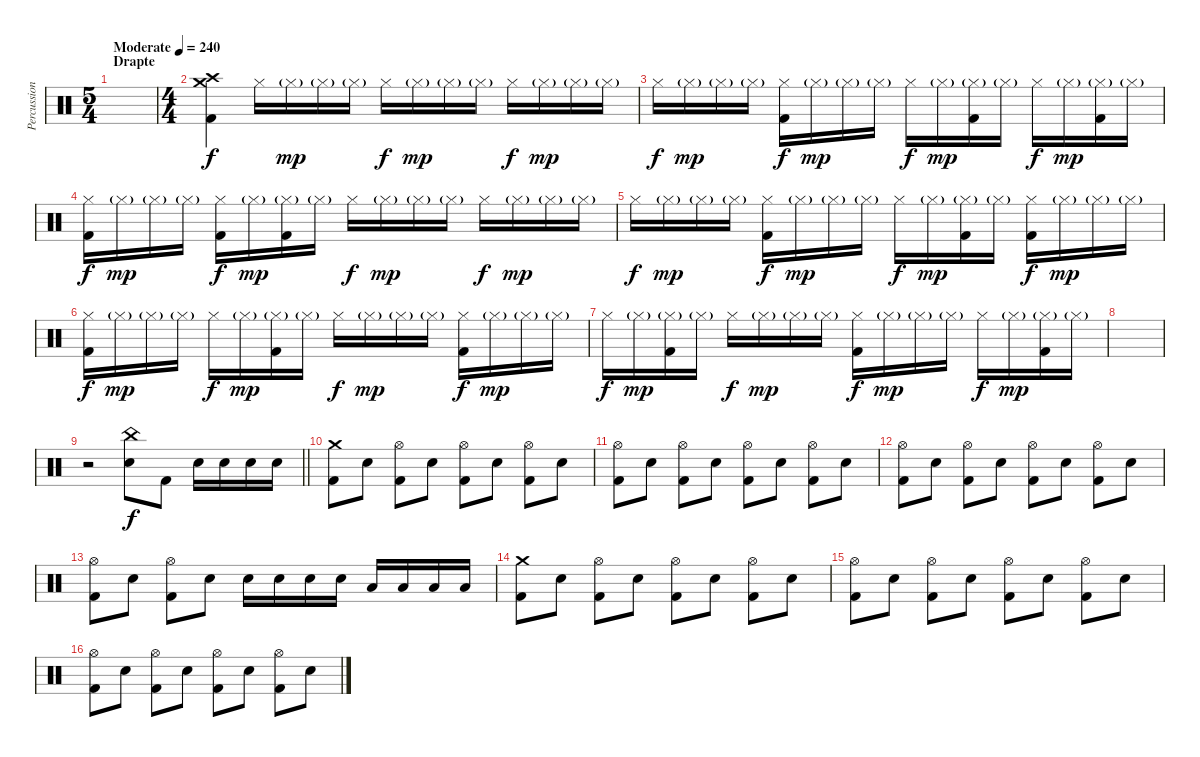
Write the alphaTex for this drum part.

\track ("Percussion" "Percussion") {instrument percussion}
\staff {score}
\articulation defaults
\ts (5 4)
\section ("" "Drapte")
\tempo (240 "Moderate")
\clef neutral
\ks c
|
\ts (4 4)
("Crash medium (hit)" "Crash high (hit)" "Kick (hit) 2").4 "Hi-Hat (closed)".16 "Hi-Hat (closed)"{g}.16{dy mp} "Hi-Hat (closed)"{g}.16 "Hi-Hat (closed)"{g}.16 "Hi-Hat (closed)".16{dy f} "Hi-Hat (closed)"{g}.16{dy mp} "Hi-Hat (closed)"{g}.16 "Hi-Hat (closed)"{g}.16 "Hi-Hat (closed)".16{dy f} "Hi-Hat (closed)"{g}.16{dy mp} "Hi-Hat (closed)"{g}.16 "Hi-Hat (closed)"{g}.16 |
"Hi-Hat (closed)".16{dy f} "Hi-Hat (closed)"{g}.16{dy mp} "Hi-Hat (closed)"{g}.16 "Hi-Hat (closed)"{g}.16 ("Hi-Hat (closed)" "Kick (hit) 2").16{dy f} "Hi-Hat (closed)"{g}.16{dy mp} "Hi-Hat (closed)"{g}.16 "Hi-Hat (closed)"{g}.16 "Hi-Hat (closed)".16{dy f} "Hi-Hat (closed)"{g}.16{dy mp} ("Hi-Hat (closed)"{g} "Kick (hit) 2").16 "Hi-Hat (closed)"{g}.16 "Hi-Hat (closed)".16{dy f} "Hi-Hat (closed)"{g}.16{dy mp} ("Hi-Hat (closed)"{g} "Kick (hit) 2").16 "Hi-Hat (closed)"{g}.16 |
("Hi-Hat (closed)" "Kick (hit) 2").16{dy f} "Hi-Hat (closed)"{g}.16{dy mp} "Hi-Hat (closed)"{g}.16 "Hi-Hat (closed)"{g}.16 ("Hi-Hat (closed)" "Kick (hit) 2").16{dy f} "Hi-Hat (closed)"{g}.16{dy mp} ("Hi-Hat (closed)"{g} "Kick (hit) 2").16 "Hi-Hat (closed)"{g}.16 "Hi-Hat (closed)".16{dy f} "Hi-Hat (closed)"{g}.16{dy mp} "Hi-Hat (closed)"{g}.16 "Hi-Hat (closed)"{g}.16 "Hi-Hat (closed)".16{dy f} "Hi-Hat (closed)"{g}.16{dy mp} "Hi-Hat (closed)"{g}.16 "Hi-Hat (closed)"{g}.16 |
"Hi-Hat (closed)".16{dy f} "Hi-Hat (closed)"{g}.16{dy mp} "Hi-Hat (closed)"{g}.16 "Hi-Hat (closed)"{g}.16 ("Hi-Hat (closed)" "Kick (hit) 2").16{dy f} "Hi-Hat (closed)"{g}.16{dy mp} "Hi-Hat (closed)"{g}.16 "Hi-Hat (closed)"{g}.16 "Hi-Hat (closed)".16{dy f} "Hi-Hat (closed)"{g}.16{dy mp} ("Hi-Hat (closed)"{g} "Kick (hit) 2").16 "Hi-Hat (closed)"{g}.16 ("Hi-Hat (closed)" "Kick (hit) 2").16{dy f} "Hi-Hat (closed)"{g}.16{dy mp} "Hi-Hat (closed)"{g}.16 "Hi-Hat (closed)"{g}.16 |
("Hi-Hat (closed)" "Kick (hit) 2").16{dy f} "Hi-Hat (closed)"{g}.16{dy mp} "Hi-Hat (closed)"{g}.16 "Hi-Hat (closed)"{g}.16 "Hi-Hat (closed)".16{dy f} "Hi-Hat (closed)"{g}.16{dy mp} ("Hi-Hat (closed)"{g} "Kick (hit) 2").16 "Hi-Hat (closed)"{g}.16 "Hi-Hat (closed)".16{dy f} "Hi-Hat (closed)"{g}.16{dy mp} "Hi-Hat (closed)"{g}.16 "Hi-Hat (closed)"{g}.16 ("Hi-Hat (closed)" "Kick (hit) 2").16{dy f} "Hi-Hat (closed)"{g}.16{dy mp} "Hi-Hat (closed)"{g}.16 "Hi-Hat (closed)"{g}.16 |
"Hi-Hat (closed)".16{dy f} "Hi-Hat (closed)"{g}.16{dy mp} ("Hi-Hat (closed)"{g} "Kick (hit) 2").16 "Hi-Hat (closed)"{g}.16 "Hi-Hat (closed)".16{dy f} "Hi-Hat (closed)"{g}.16{dy mp} "Hi-Hat (closed)"{g}.16 "Hi-Hat (closed)"{g}.16 ("Hi-Hat (closed)" "Kick (hit) 2").16{dy f} "Hi-Hat (closed)"{g}.16{dy mp} "Hi-Hat (closed)"{g}.16 "Hi-Hat (closed)"{g}.16 "Hi-Hat (closed)".16{dy f} "Hi-Hat (closed)"{g}.16{dy mp} ("Hi-Hat (closed)"{g} "Kick (hit) 2").16 "Hi-Hat (closed)"{g}.16 |
|
\barLineRight lightlight
r.2 ("China (hit)" "Electric Snare (hit)").8{dy f} "Kick (hit) 2".8 "Electric Snare (hit)".16 "Electric Snare (hit)".16 "Electric Snare (hit)".16 "Electric Snare (hit)".16 |
\section ("" "")
("Crash medium (hit)" "Kick (hit) 2").8 "Electric Snare (hit)".8 ("Hi-Hat (open)" "Kick (hit) 2").8 "Electric Snare (hit)".8 ("Hi-Hat (open)" "Kick (hit) 2").8 "Electric Snare (hit)".8 ("Hi-Hat (open)" "Kick (hit) 2").8 "Electric Snare (hit)".8 |
("Hi-Hat (open)" "Kick (hit) 2").8 "Electric Snare (hit)".8 ("Hi-Hat (open)" "Kick (hit) 2").8 "Electric Snare (hit)".8 ("Hi-Hat (open)" "Kick (hit) 2").8 "Electric Snare (hit)".8 ("Hi-Hat (open)" "Kick (hit) 2").8 "Electric Snare (hit)".8 |
("Hi-Hat (open)" "Kick (hit) 2").8 "Electric Snare (hit)".8 ("Hi-Hat (open)" "Kick (hit) 2").8 "Electric Snare (hit)".8 ("Hi-Hat (open)" "Kick (hit) 2").8 "Electric Snare (hit)".8 ("Hi-Hat (open)" "Kick (hit) 2").8 "Electric Snare (hit)".8 |
("Hi-Hat (open)" "Kick (hit) 2").8 "Electric Snare (hit)".8 ("Hi-Hat (open)" "Kick (hit) 2").8 "Electric Snare (hit)".8 "Electric Snare (hit)".16 "Electric Snare (hit)".16 "Electric Snare (hit)".16 "Electric Snare (hit)".16 "Low Tom (hit)".16 "Low Tom (hit)".16 "Low Tom (hit)".16 "Low Tom (hit)".16 |
("Crash medium (hit)" "Kick (hit) 2").8 "Electric Snare (hit)".8 ("Hi-Hat (open)" "Kick (hit) 2").8 "Electric Snare (hit)".8 ("Hi-Hat (open)" "Kick (hit) 2").8 "Electric Snare (hit)".8 ("Hi-Hat (open)" "Kick (hit) 2").8 "Electric Snare (hit)".8 |
("Hi-Hat (open)" "Kick (hit) 2").8 "Electric Snare (hit)".8 ("Hi-Hat (open)" "Kick (hit) 2").8 "Electric Snare (hit)".8 ("Hi-Hat (open)" "Kick (hit) 2").8 "Electric Snare (hit)".8 ("Hi-Hat (open)" "Kick (hit) 2").8 "Electric Snare (hit)".8 |
("Hi-Hat (open)" "Kick (hit) 2").8 "Electric Snare (hit)".8 ("Hi-Hat (open)" "Kick (hit) 2").8 "Electric Snare (hit)".8 ("Hi-Hat (open)" "Kick (hit) 2").8 "Electric Snare (hit)".8 ("Hi-Hat (open)" "Kick (hit) 2").8 "Electric Snare (hit)".8
